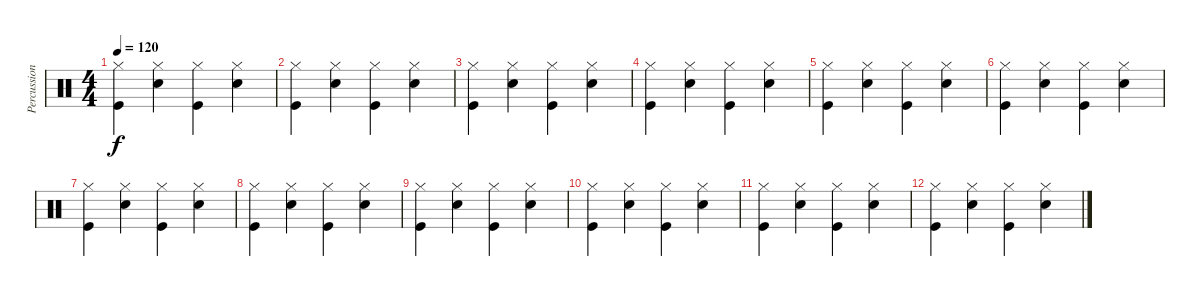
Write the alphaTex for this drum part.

\track ("Percussion" "Percussion") {instrument percussion}
\staff {score}
\articulation defaults
\ts (4 4)
\tempo 120
\clef neutral
\ks c
("Hi-Hat (closed)" "Kick (hit)").4{dy f} ("Hi-Hat (closed)" "Snare (hit) 2").4 ("Hi-Hat (closed)" "Kick (hit)").4 ("Hi-Hat (closed)" "Snare (hit) 2").4 |
("Hi-Hat (closed)" "Kick (hit)").4 ("Hi-Hat (closed)" "Snare (hit) 2").4 ("Hi-Hat (closed)" "Kick (hit)").4 ("Hi-Hat (closed)" "Snare (hit) 2").4 |
("Hi-Hat (closed)" "Kick (hit)").4 ("Hi-Hat (closed)" "Snare (hit) 2").4 ("Hi-Hat (closed)" "Kick (hit)").4 ("Hi-Hat (closed)" "Snare (hit) 2").4 |
("Hi-Hat (closed)" "Kick (hit)").4 ("Hi-Hat (closed)" "Snare (hit) 2").4 ("Hi-Hat (closed)" "Kick (hit)").4 ("Hi-Hat (closed)" "Snare (hit) 2").4 |
("Hi-Hat (closed)" "Kick (hit)").4 ("Hi-Hat (closed)" "Snare (hit) 2").4 ("Hi-Hat (closed)" "Kick (hit)").4 ("Hi-Hat (closed)" "Snare (hit) 2").4 |
("Hi-Hat (closed)" "Kick (hit)").4 ("Hi-Hat (closed)" "Snare (hit) 2").4 ("Hi-Hat (closed)" "Kick (hit)").4 ("Hi-Hat (closed)" "Snare (hit) 2").4 |
("Hi-Hat (closed)" "Kick (hit)").4 ("Hi-Hat (closed)" "Snare (hit) 2").4 ("Hi-Hat (closed)" "Kick (hit)").4 ("Hi-Hat (closed)" "Snare (hit) 2").4 |
("Hi-Hat (closed)" "Kick (hit)").4 ("Hi-Hat (closed)" "Snare (hit) 2").4 ("Hi-Hat (closed)" "Kick (hit)").4 ("Hi-Hat (closed)" "Snare (hit) 2").4 |
("Hi-Hat (closed)" "Kick (hit)").4 ("Hi-Hat (closed)" "Snare (hit) 2").4 ("Hi-Hat (closed)" "Kick (hit)").4 ("Hi-Hat (closed)" "Snare (hit) 2").4 |
("Hi-Hat (closed)" "Kick (hit)").4 ("Hi-Hat (closed)" "Snare (hit) 2").4 ("Hi-Hat (closed)" "Kick (hit)").4 ("Hi-Hat (closed)" "Snare (hit) 2").4 |
("Hi-Hat (closed)" "Kick (hit)").4 ("Hi-Hat (closed)" "Snare (hit) 2").4 ("Hi-Hat (closed)" "Kick (hit)").4 ("Hi-Hat (closed)" "Snare (hit) 2").4 |
("Hi-Hat (closed)" "Kick (hit)").4 ("Hi-Hat (closed)" "Snare (hit) 2").4 ("Hi-Hat (closed)" "Kick (hit)").4 ("Hi-Hat (closed)" "Snare (hit) 2").4
